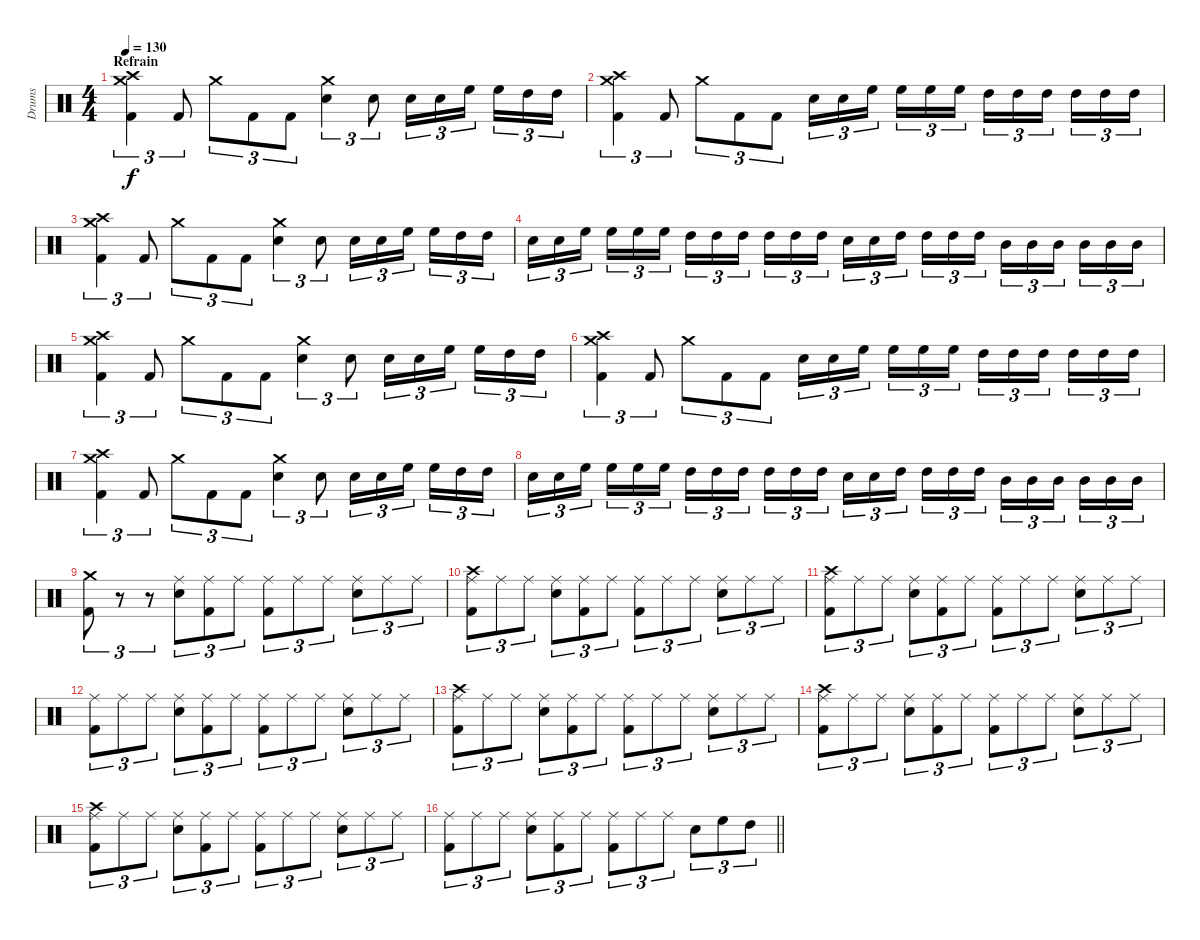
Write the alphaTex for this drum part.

\track ("Drums" "Drums") {instrument percussion}
\staff {score}
\articulation defaults
\ts (4 4)
\section ("" "Refrain")
\tempo 130
\clef neutral
\ks c
("Crash medium (hit)" "Crash high (hit)" "Kick (hit) 2").4{tu (3 2) dy f} "Kick (hit) 2".8{tu (3 2)} "Crash medium (hit)".8{tu (3 2)} "Kick (hit) 2".8{tu (3 2)} "Kick (hit) 2".8{tu (3 2)} ("Crash medium (hit)" "Electric Snare (hit)").4{tu (3 2)} "Electric Snare (hit)".8{tu (3 2)} "Electric Snare (hit)".16{tu (3 2)} "Electric Snare (hit)".16{tu (3 2)} "High Floor Tom (hit)".16{tu (3 2) beam splitsecondary} "High Floor Tom (hit)".16{tu (3 2)} "High Tom (hit)".16{tu (3 2)} "High Tom (hit)".16{tu (3 2)} |
("Crash medium (hit)" "Crash high (hit)" "Kick (hit) 2").4{tu (3 2)} "Kick (hit) 2".8{tu (3 2)} "Crash medium (hit)".8{tu (3 2)} "Kick (hit) 2".8{tu (3 2)} "Kick (hit) 2".8{tu (3 2)} "Electric Snare (hit)".16{tu (3 2)} "Electric Snare (hit)".16{tu (3 2)} "High Floor Tom (hit)".16{tu (3 2) beam splitsecondary} "High Floor Tom (hit)".16{tu (3 2)} "High Floor Tom (hit)".16{tu (3 2)} "High Floor Tom (hit)".16{tu (3 2)} "High Tom (hit)".16{tu (3 2)} "High Tom (hit)".16{tu (3 2)} "High Tom (hit)".16{tu (3 2) beam splitsecondary} "High Tom (hit)".16{tu (3 2)} "High Tom (hit)".16{tu (3 2)} "High Tom (hit)".16{tu (3 2)} |
("Crash medium (hit)" "Crash high (hit)" "Kick (hit) 2").4{tu (3 2)} "Kick (hit) 2".8{tu (3 2)} "Crash medium (hit)".8{tu (3 2)} "Kick (hit) 2".8{tu (3 2)} "Kick (hit) 2".8{tu (3 2)} ("Crash medium (hit)" "Electric Snare (hit)").4{tu (3 2)} "Electric Snare (hit)".8{tu (3 2)} "Electric Snare (hit)".16{tu (3 2)} "Electric Snare (hit)".16{tu (3 2)} "High Floor Tom (hit)".16{tu (3 2) beam splitsecondary} "High Floor Tom (hit)".16{tu (3 2)} "High Tom (hit)".16{tu (3 2)} "High Tom (hit)".16{tu (3 2)} |
"Electric Snare (hit)".16{tu (3 2)} "Electric Snare (hit)".16{tu (3 2)} "High Floor Tom (hit)".16{tu (3 2) beam splitsecondary} "High Floor Tom (hit)".16{tu (3 2)} "High Floor Tom (hit)".16{tu (3 2)} "High Floor Tom (hit)".16{tu (3 2)} "High Tom (hit)".16{tu (3 2)} "High Tom (hit)".16{tu (3 2)} "High Tom (hit)".16{tu (3 2) beam splitsecondary} "High Tom (hit)".16{tu (3 2)} "High Tom (hit)".16{tu (3 2)} "High Tom (hit)".16{tu (3 2)} "Electric Snare (hit)".16{tu (3 2)} "Electric Snare (hit)".16{tu (3 2)} "High Tom (hit)".16{tu (3 2) beam splitsecondary} "High Tom (hit)".16{tu (3 2)} "High Tom (hit)".16{tu (3 2)} "High Tom (hit)".16{tu (3 2)} "Mid Tom (hit)".16{tu (3 2)} "Mid Tom (hit)".16{tu (3 2)} "Mid Tom (hit)".16{tu (3 2) beam splitsecondary} "Mid Tom (hit)".16{tu (3 2)} "Mid Tom (hit)".16{tu (3 2)} "Mid Tom (hit)".16{tu (3 2)} |
("Crash medium (hit)" "Crash high (hit)" "Kick (hit) 2").4{tu (3 2)} "Kick (hit) 2".8{tu (3 2)} "Crash medium (hit)".8{tu (3 2)} "Kick (hit) 2".8{tu (3 2)} "Kick (hit) 2".8{tu (3 2)} ("Crash medium (hit)" "Electric Snare (hit)").4{tu (3 2)} "Electric Snare (hit)".8{tu (3 2)} "Electric Snare (hit)".16{tu (3 2)} "Electric Snare (hit)".16{tu (3 2)} "High Floor Tom (hit)".16{tu (3 2) beam splitsecondary} "High Floor Tom (hit)".16{tu (3 2)} "High Tom (hit)".16{tu (3 2)} "High Tom (hit)".16{tu (3 2)} |
("Crash medium (hit)" "Crash high (hit)" "Kick (hit) 2").4{tu (3 2)} "Kick (hit) 2".8{tu (3 2)} "Crash medium (hit)".8{tu (3 2)} "Kick (hit) 2".8{tu (3 2)} "Kick (hit) 2".8{tu (3 2)} "Electric Snare (hit)".16{tu (3 2)} "Electric Snare (hit)".16{tu (3 2)} "High Floor Tom (hit)".16{tu (3 2) beam splitsecondary} "High Floor Tom (hit)".16{tu (3 2)} "High Floor Tom (hit)".16{tu (3 2)} "High Floor Tom (hit)".16{tu (3 2)} "High Tom (hit)".16{tu (3 2)} "High Tom (hit)".16{tu (3 2)} "High Tom (hit)".16{tu (3 2) beam splitsecondary} "High Tom (hit)".16{tu (3 2)} "High Tom (hit)".16{tu (3 2)} "High Tom (hit)".16{tu (3 2)} |
("Crash medium (hit)" "Crash high (hit)" "Kick (hit) 2").4{tu (3 2)} "Kick (hit) 2".8{tu (3 2)} "Crash medium (hit)".8{tu (3 2)} "Kick (hit) 2".8{tu (3 2)} "Kick (hit) 2".8{tu (3 2)} ("Crash medium (hit)" "Electric Snare (hit)").4{tu (3 2)} "Electric Snare (hit)".8{tu (3 2)} "Electric Snare (hit)".16{tu (3 2)} "Electric Snare (hit)".16{tu (3 2)} "High Floor Tom (hit)".16{tu (3 2) beam splitsecondary} "High Floor Tom (hit)".16{tu (3 2)} "High Tom (hit)".16{tu (3 2)} "High Tom (hit)".16{tu (3 2)} |
"Electric Snare (hit)".16{tu (3 2)} "Electric Snare (hit)".16{tu (3 2)} "High Floor Tom (hit)".16{tu (3 2) beam splitsecondary} "High Floor Tom (hit)".16{tu (3 2)} "High Floor Tom (hit)".16{tu (3 2)} "High Floor Tom (hit)".16{tu (3 2)} "High Tom (hit)".16{tu (3 2)} "High Tom (hit)".16{tu (3 2)} "High Tom (hit)".16{tu (3 2) beam splitsecondary} "High Tom (hit)".16{tu (3 2)} "High Tom (hit)".16{tu (3 2)} "High Tom (hit)".16{tu (3 2)} "Electric Snare (hit)".16{tu (3 2)} "Electric Snare (hit)".16{tu (3 2)} "High Tom (hit)".16{tu (3 2) beam splitsecondary} "High Tom (hit)".16{tu (3 2)} "High Tom (hit)".16{tu (3 2)} "High Tom (hit)".16{tu (3 2)} "Mid Tom (hit)".16{tu (3 2)} "Mid Tom (hit)".16{tu (3 2)} "Mid Tom (hit)".16{tu (3 2) beam splitsecondary} "Mid Tom (hit)".16{tu (3 2)} "Mid Tom (hit)".16{tu (3 2)} "Mid Tom (hit)".16{tu (3 2)} |
("Crash medium (hit)" "Kick (hit) 2").8{tu (3 2)} r.8{tu (3 2)} r.8{tu (3 2)} ("Ride (middle)" "Electric Snare (hit)").8{tu (3 2)} ("Ride (middle)" "Kick (hit) 2").8{tu (3 2)} "Ride (middle)".8{tu (3 2)} ("Ride (middle)" "Kick (hit) 2").8{tu (3 2)} "Ride (middle)".8{tu (3 2)} "Ride (middle)".8{tu (3 2)} ("Ride (middle)" "Electric Snare (hit)").8{tu (3 2)} "Ride (middle)".8{tu (3 2)} "Ride (middle)".8{tu (3 2)} |
("Crash high (hit)" "Ride (middle)" "Kick (hit) 2").8{tu (3 2)} "Ride (middle)".8{tu (3 2)} "Ride (middle)".8{tu (3 2)} ("Ride (middle)" "Electric Snare (hit)").8{tu (3 2)} ("Ride (middle)" "Kick (hit) 2").8{tu (3 2)} "Ride (middle)".8{tu (3 2)} ("Ride (middle)" "Kick (hit) 2").8{tu (3 2)} "Ride (middle)".8{tu (3 2)} "Ride (middle)".8{tu (3 2)} ("Ride (middle)" "Electric Snare (hit)").8{tu (3 2)} "Ride (middle)".8{tu (3 2)} "Ride (middle)".8{tu (3 2)} |
("Crash high (hit)" "Ride (middle)" "Kick (hit) 2").8{tu (3 2)} "Ride (middle)".8{tu (3 2)} "Ride (middle)".8{tu (3 2)} ("Ride (middle)" "Electric Snare (hit)").8{tu (3 2)} ("Ride (middle)" "Kick (hit) 2").8{tu (3 2)} "Ride (middle)".8{tu (3 2)} ("Ride (middle)" "Kick (hit) 2").8{tu (3 2)} "Ride (middle)".8{tu (3 2)} "Ride (middle)".8{tu (3 2)} ("Ride (middle)" "Electric Snare (hit)").8{tu (3 2)} "Ride (middle)".8{tu (3 2)} "Ride (middle)".8{tu (3 2)} |
("Ride (middle)" "Kick (hit) 2").8{tu (3 2)} "Ride (middle)".8{tu (3 2)} "Ride (middle)".8{tu (3 2)} ("Ride (middle)" "Electric Snare (hit)").8{tu (3 2)} ("Ride (middle)" "Kick (hit) 2").8{tu (3 2)} "Ride (middle)".8{tu (3 2)} ("Ride (middle)" "Kick (hit) 2").8{tu (3 2)} "Ride (middle)".8{tu (3 2)} "Ride (middle)".8{tu (3 2)} ("Ride (middle)" "Electric Snare (hit)").8{tu (3 2)} "Ride (middle)".8{tu (3 2)} "Ride (middle)".8{tu (3 2)} |
("Crash high (hit)" "Ride (middle)" "Kick (hit) 2").8{tu (3 2)} "Ride (middle)".8{tu (3 2)} "Ride (middle)".8{tu (3 2)} ("Ride (middle)" "Electric Snare (hit)").8{tu (3 2)} ("Ride (middle)" "Kick (hit) 2").8{tu (3 2)} "Ride (middle)".8{tu (3 2)} ("Ride (middle)" "Kick (hit) 2").8{tu (3 2)} "Ride (middle)".8{tu (3 2)} "Ride (middle)".8{tu (3 2)} ("Ride (middle)" "Electric Snare (hit)").8{tu (3 2)} "Ride (middle)".8{tu (3 2)} "Ride (middle)".8{tu (3 2)} |
("Crash high (hit)" "Ride (middle)" "Kick (hit) 2").8{tu (3 2)} "Ride (middle)".8{tu (3 2)} "Ride (middle)".8{tu (3 2)} ("Ride (middle)" "Electric Snare (hit)").8{tu (3 2)} ("Ride (middle)" "Kick (hit) 2").8{tu (3 2)} "Ride (middle)".8{tu (3 2)} ("Ride (middle)" "Kick (hit) 2").8{tu (3 2)} "Ride (middle)".8{tu (3 2)} "Ride (middle)".8{tu (3 2)} ("Ride (middle)" "Electric Snare (hit)").8{tu (3 2)} "Ride (middle)".8{tu (3 2)} "Ride (middle)".8{tu (3 2)} |
("Crash high (hit)" "Ride (middle)" "Kick (hit) 2").8{tu (3 2)} "Ride (middle)".8{tu (3 2)} "Ride (middle)".8{tu (3 2)} ("Ride (middle)" "Electric Snare (hit)").8{tu (3 2)} ("Ride (middle)" "Kick (hit) 2").8{tu (3 2)} "Ride (middle)".8{tu (3 2)} ("Ride (middle)" "Kick (hit) 2").8{tu (3 2)} "Ride (middle)".8{tu (3 2)} "Ride (middle)".8{tu (3 2)} ("Ride (middle)" "Electric Snare (hit)").8{tu (3 2)} "Ride (middle)".8{tu (3 2)} "Ride (middle)".8{tu (3 2)} |
\barLineRight lightlight
("Ride (middle)" "Kick (hit) 2").8{tu (3 2)} "Ride (middle)".8{tu (3 2)} "Ride (middle)".8{tu (3 2)} ("Ride (middle)" "Electric Snare (hit)").8{tu (3 2)} ("Ride (middle)" "Kick (hit) 2").8{tu (3 2)} "Ride (middle)".8{tu (3 2)} ("Ride (middle)" "Kick (hit) 2").8{tu (3 2)} "Ride (middle)".8{tu (3 2)} "Ride (middle)".8{tu (3 2)} "Electric Snare (hit)".8{tu (3 2)} "High Floor Tom (hit)".8{tu (3 2)} "High Tom (hit)".8{tu (3 2)}
